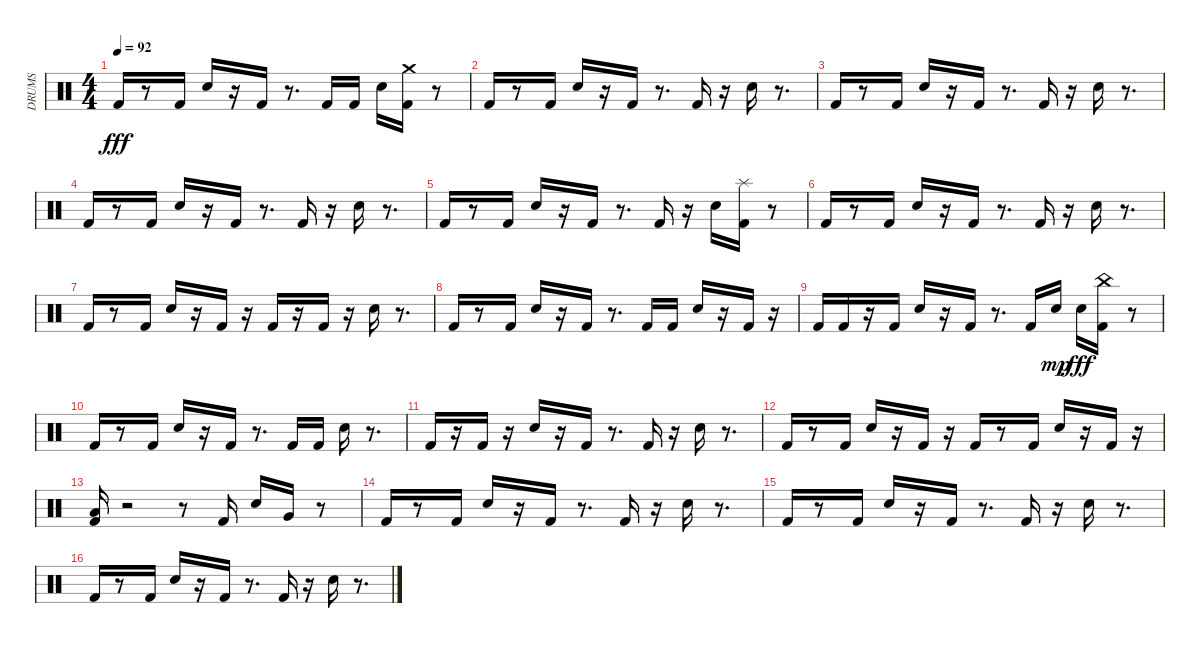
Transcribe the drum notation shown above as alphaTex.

\track ("DRUMS" "DRUMS") {instrument percussion}
\staff {score}
\articulation defaults
\ts (4 4)
\tempo 92
\clef neutral
\ks c "Kick (hit) 2".16{dy fff}
r.8 "Kick (hit) 2".16 "Electric Snare (hit)".16 r.16 "Kick (hit) 2".16 r.8{d} "Kick (hit) 2".16 "Kick (hit) 2".16 "Electric Snare (hit)".16 ("Kick (hit) 2" "Crash medium (hit)").16 r.8 |
"Kick (hit) 2".16 r.8 "Kick (hit) 2".16 "Electric Snare (hit)".16 r.16 "Kick (hit) 2".16 r.8{d} "Kick (hit) 2".16 r.16 "Electric Snare (hit)".16 r.8{d} |
"Kick (hit) 2".16 r.8 "Kick (hit) 2".16 "Electric Snare (hit)".16 r.16 "Kick (hit) 2".16 r.8{d} "Kick (hit) 2".16 r.16 "Electric Snare (hit)".16 r.8{d} |
"Kick (hit) 2".16 r.8 "Kick (hit) 2".16 "Electric Snare (hit)".16 r.16 "Kick (hit) 2".16 r.8{d} "Kick (hit) 2".16 r.16 "Electric Snare (hit)".16 r.8{d} |
"Kick (hit) 2".16 r.8 "Kick (hit) 2".16 "Electric Snare (hit)".16 r.16 "Kick (hit) 2".16 r.8{d} "Kick (hit) 2".16 r.16 "Electric Snare (hit)".16 ("Kick (hit) 2" "Splash (hit)").16 r.8 |
"Kick (hit) 2".16 r.8 "Kick (hit) 2".16 "Electric Snare (hit)".16 r.16 "Kick (hit) 2".16 r.8{d} "Kick (hit) 2".16 r.16 "Electric Snare (hit)".16 r.8{d} |
"Kick (hit) 2".16 r.8 "Kick (hit) 2".16 "Electric Snare (hit)".16 r.16 "Kick (hit) 2".16 r.16 "Kick (hit) 2".16 r.16 "Kick (hit) 2".16 r.16 "Electric Snare (hit)".16 r.8{d} |
"Kick (hit) 2".16 r.8 "Kick (hit) 2".16 "Electric Snare (hit)".16 r.16 "Kick (hit) 2".16 r.8{d} "Kick (hit) 2".16 "Kick (hit) 2".16 "Electric Snare (hit)".16 r.16 "Kick (hit) 2".16 r.16 |
"Kick (hit) 2".16 "Kick (hit) 2".16 r.16 "Kick (hit) 2".16 "Electric Snare (hit)".16 r.16 "Kick (hit) 2".16 r.8{d} "Kick (hit) 2".16 "Electric Snare (hit)".16{dy mp} "Electric Snare (hit)".16{dy fff} ("Kick (hit) 2" "China (hit)").16 r.8 |
"Kick (hit) 2".16 r.8 "Kick (hit) 2".16 "Electric Snare (hit)".16 r.16 "Kick (hit) 2".16 r.8{d} "Kick (hit) 2".16 "Kick (hit) 2".16 "Electric Snare (hit)".16 r.8{d} |
"Kick (hit) 2".16 r.16 "Kick (hit) 2".16 r.16 "Electric Snare (hit)".16 r.16 "Kick (hit) 2".16 r.8{d} "Kick (hit) 2".16 r.16 "Electric Snare (hit)".16 r.8{d} |
"Kick (hit) 2".16 r.8 "Kick (hit) 2".16 "Electric Snare (hit)".16 r.16 "Kick (hit) 2".16 r.16 "Kick (hit) 2".16 r.8 "Kick (hit) 2".16 "Electric Snare (hit)".16 r.16 "Kick (hit) 2".16 r.16 |
("Kick (hit) 2" "Low Floor Tom (hit)").16 r.2 r.8 "Kick (hit) 2".16 "Electric Snare (hit)".16 "Very Low Tom (hit)".16 r.8 |
"Kick (hit) 2".16 r.8 "Kick (hit) 2".16 "Electric Snare (hit)".16 r.16 "Kick (hit) 2".16 r.8{d} "Kick (hit) 2".16 r.16 "Electric Snare (hit)".16 r.8{d} |
"Kick (hit) 2".16 r.8 "Kick (hit) 2".16 "Electric Snare (hit)".16 r.16 "Kick (hit) 2".16 r.8{d} "Kick (hit) 2".16 r.16 "Electric Snare (hit)".16 r.8{d} |
"Kick (hit) 2".16 r.8 "Kick (hit) 2".16 "Electric Snare (hit)".16 r.16 "Kick (hit) 2".16 r.8{d} "Kick (hit) 2".16 r.16 "Electric Snare (hit)".16 r.8{d}
